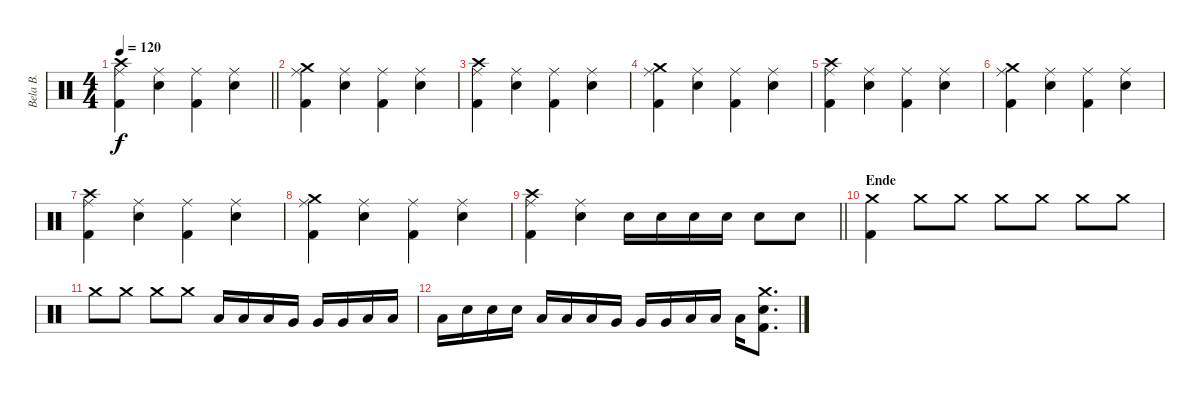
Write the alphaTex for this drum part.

\track ("Bela B." "Bela B.") {instrument percussion}
\staff {score}
\articulation defaults
\ts (4 4)
\tempo 120
\clef neutral
\barLineRight lightlight
\ks c
("Crash high (hit)" "Ride (middle)" "Kick (hit) 2").4{dy f} ("Ride (middle)" "Snare (hit) 2").4 ("Ride (middle)" "Kick (hit) 2").4 ("Ride (middle)" "Snare (hit) 2").4 |
("Crash medium (hit)" "Ride (middle)" "Kick (hit) 2").4 ("Ride (middle)" "Snare (hit) 2").4 ("Ride (middle)" "Kick (hit) 2").4 ("Ride (middle)" "Snare (hit) 2").4 |
("Crash high (hit)" "Ride (middle)" "Kick (hit) 2").4 ("Ride (middle)" "Snare (hit) 2").4 ("Ride (middle)" "Kick (hit) 2").4 ("Ride (middle)" "Snare (hit) 2").4 |
("Crash medium (hit)" "Ride (middle)" "Kick (hit) 2").4 ("Ride (middle)" "Snare (hit) 2").4 ("Ride (middle)" "Kick (hit) 2").4 ("Ride (middle)" "Snare (hit) 2").4 |
("Crash high (hit)" "Ride (middle)" "Kick (hit) 2").4 ("Ride (middle)" "Snare (hit) 2").4 ("Ride (middle)" "Kick (hit) 2").4 ("Ride (middle)" "Snare (hit) 2").4 |
("Crash medium (hit)" "Ride (middle)" "Kick (hit) 2").4 ("Ride (middle)" "Snare (hit) 2").4 ("Ride (middle)" "Kick (hit) 2").4 ("Ride (middle)" "Snare (hit) 2").4 |
("Crash high (hit)" "Ride (middle)" "Kick (hit) 2").4 ("Ride (middle)" "Snare (hit) 2").4 ("Ride (middle)" "Kick (hit) 2").4 ("Ride (middle)" "Snare (hit) 2").4 |
("Crash medium (hit)" "Ride (middle)" "Kick (hit) 2").4 ("Ride (middle)" "Snare (hit) 2").4 ("Ride (middle)" "Kick (hit) 2").4 ("Ride (middle)" "Snare (hit) 2").4 |
\barLineRight lightlight
("Crash high (hit)" "Ride (middle)" "Kick (hit) 2").4 ("Ride (middle)" "Snare (hit) 2").4 "Snare (hit) 2".16 "Snare (hit) 2".16 "Snare (hit) 2".16 "Snare (hit) 2".16 "Snare (hit) 2".8 "Snare (hit) 2".8 |
\section ("" "Ende")
("Crash medium (hit)" "Kick (hit) 2").4 "Crash medium (hit)".8 "Crash medium (hit)".8 "Crash medium (hit)".8 "Crash medium (hit)".8 "Crash medium (hit)".8 "Crash medium (hit)".8 |
"Crash medium (hit)".8 "Crash medium (hit)".8 "Crash medium (hit)".8 "Crash medium (hit)".8 "Low Tom (hit)".16 "Low Tom (hit)".16 "Low Tom (hit)".16 "Very Low Tom (hit)".16 "Very Low Tom (hit)".16 "Very Low Tom (hit)".16 "Low Floor Tom (hit)".16 "Low Floor Tom (hit)".16 |
"Low Floor Tom (hit)".16 "Electric Snare (hit)".16 "Electric Snare (hit)".16 "Electric Snare (hit)".16 "Low Floor Tom (hit)".16 "Low Floor Tom (hit)".16 "Low Floor Tom (hit)".16 "Very Low Tom (hit)".16 "Very Low Tom (hit)".16 "Very Low Tom (hit)".16 "Low Tom (hit)".16 "Low Tom (hit)".16 "Low Tom (hit)".16 ("Snare (hit) 2" "Crash medium (hit)" "Kick (hit) 2").8{d}
